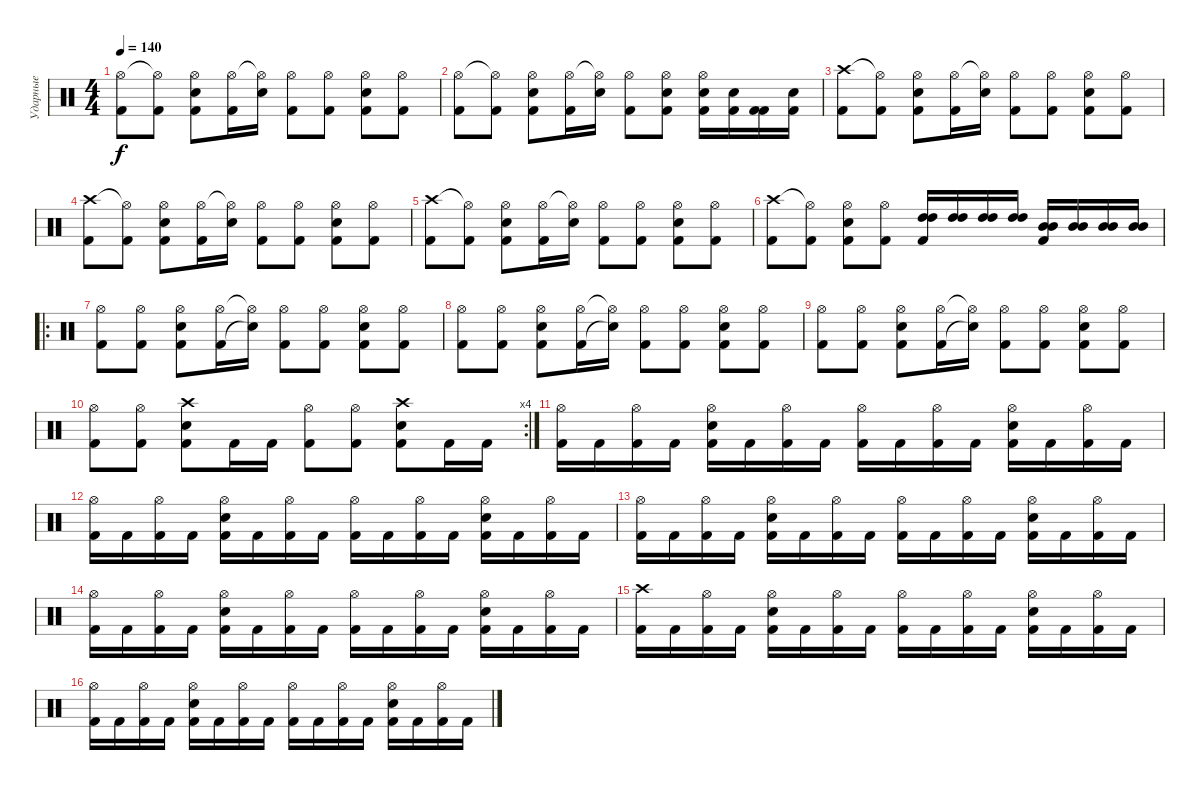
\track ("Ударные" "Ударные") {instrument percussion}
\staff {score}
\articulation defaults
\ts (4 4)
\tempo 140
\clef neutral
\ks c
("Hi-Hat (open)" "Kick (hit) 2").8{dy f} ("Hi-Hat (open)"{t} "Kick (hit) 2").8 ("Hi-Hat (open)" "Electric Snare (hit)" "Kick (hit) 2").8 ("Hi-Hat (open)" "Kick (hit) 2").16 ("Hi-Hat (open)"{t} "Electric Snare (hit)").16 ("Hi-Hat (open)" "Kick (hit) 2").8 ("Hi-Hat (open)" "Kick (hit) 2").8 ("Hi-Hat (open)" "Electric Snare (hit)" "Kick (hit) 2").8 ("Hi-Hat (open)" "Kick (hit) 2").8 |
("Hi-Hat (open)" "Kick (hit) 2").8 ("Hi-Hat (open)"{t} "Kick (hit) 2").8 ("Hi-Hat (open)" "Electric Snare (hit)" "Kick (hit) 2").8 ("Hi-Hat (open)" "Kick (hit) 2").16 ("Hi-Hat (open)"{t} "Electric Snare (hit)").16 ("Hi-Hat (open)" "Kick (hit) 2").8 ("Hi-Hat (open)" "Electric Snare (hit)" "Kick (hit) 2").8 ("Hi-Hat (open)" "Kick (hit) 2" "Electric Snare (hit)").16 ("Electric Snare (hit)" "Kick (hit) 2").16 ("Kick (hit) 2" "Kick (hit) 2").16 ("Electric Snare (hit)" "Kick (hit) 2").16 |
("Crash high (hit)" "Kick (hit) 2").8 ("Hi-Hat (open)"{t} "Kick (hit) 2").8 ("Hi-Hat (open)" "Electric Snare (hit)" "Kick (hit) 2").8 ("Hi-Hat (open)" "Kick (hit) 2").16 ("Hi-Hat (open)"{t} "Electric Snare (hit)").16 ("Hi-Hat (open)" "Kick (hit) 2").8 ("Hi-Hat (open)" "Kick (hit) 2").8 ("Hi-Hat (open)" "Electric Snare (hit)" "Kick (hit) 2").8 ("Hi-Hat (open)" "Kick (hit) 2").8 |
("Crash high (hit)" "Kick (hit) 2").8 ("Hi-Hat (open)"{t} "Kick (hit) 2").8 ("Hi-Hat (open)" "Electric Snare (hit)" "Kick (hit) 2").8 ("Hi-Hat (open)" "Kick (hit) 2").16 ("Hi-Hat (open)"{t} "Electric Snare (hit)").16 ("Hi-Hat (open)" "Kick (hit) 2").8 ("Hi-Hat (open)" "Kick (hit) 2").8 ("Hi-Hat (open)" "Electric Snare (hit)" "Kick (hit) 2").8 ("Hi-Hat (open)" "Kick (hit) 2").8 |
("Crash high (hit)" "Kick (hit) 2").8 ("Hi-Hat (open)"{t} "Kick (hit) 2").8 ("Hi-Hat (open)" "Electric Snare (hit)" "Kick (hit) 2").8 ("Hi-Hat (open)" "Kick (hit) 2").16 ("Hi-Hat (open)"{t} "Electric Snare (hit)").16 ("Hi-Hat (open)" "Kick (hit) 2").8 ("Hi-Hat (open)" "Kick (hit) 2").8 ("Hi-Hat (open)" "Electric Snare (hit)" "Kick (hit) 2").8 ("Hi-Hat (open)" "Kick (hit) 2").8 |
("Crash high (hit)" "Kick (hit) 2").8 ("Hi-Hat (open)"{t} "Kick (hit) 2").8 ("Hi-Hat (open)" "Electric Snare (hit)" "Kick (hit) 2").8 ("Hi-Hat (open)" "Kick (hit) 2").8 ("High Tom (hit)" "High Tom (hit)" "Kick (hit) 2").16 ("High Tom (hit)" "High Tom (hit)").16 ("High Tom (hit)" "High Tom (hit)").16 ("High Tom (hit)" "High Tom (hit)").16 ("Mid Tom (hit)" "Mid Tom (hit)" "Kick (hit) 2").16 ("Mid Tom (hit)" "Mid Tom (hit)").16 ("Mid Tom (hit)" "Mid Tom (hit)").16 ("Mid Tom (hit)" "Mid Tom (hit)").16 |
\ro
("Hi-Hat (open)" "Kick (hit) 2").8 ("Hi-Hat (open)" "Kick (hit) 2").8 ("Hi-Hat (open)" "Electric Snare (hit)" "Kick (hit) 2").8 ("Hi-Hat (open)" "Kick (hit) 2").16 ("Hi-Hat (open)"{t} "Electric Snare (hit)"{t}).16 ("Hi-Hat (open)" "Kick (hit) 2").8 ("Hi-Hat (open)" "Kick (hit) 2").8 ("Hi-Hat (open)" "Electric Snare (hit)" "Kick (hit) 2").8 ("Hi-Hat (open)" "Kick (hit) 2").8 |
("Hi-Hat (open)" "Kick (hit) 2").8 ("Hi-Hat (open)" "Kick (hit) 2").8 ("Hi-Hat (open)" "Electric Snare (hit)" "Kick (hit) 2").8 ("Hi-Hat (open)" "Kick (hit) 2").16 ("Hi-Hat (open)"{t} "Electric Snare (hit)"{t}).16 ("Hi-Hat (open)" "Kick (hit) 2").8 ("Hi-Hat (open)" "Kick (hit) 2").8 ("Hi-Hat (open)" "Electric Snare (hit)" "Kick (hit) 2").8 ("Hi-Hat (open)" "Kick (hit) 2").8 |
("Hi-Hat (open)" "Kick (hit) 2").8 ("Hi-Hat (open)" "Kick (hit) 2").8 ("Hi-Hat (open)" "Electric Snare (hit)" "Kick (hit) 2").8 ("Hi-Hat (open)" "Kick (hit) 2").16 ("Hi-Hat (open)"{t} "Electric Snare (hit)"{t}).16 ("Hi-Hat (open)" "Kick (hit) 2").8 ("Hi-Hat (open)" "Kick (hit) 2").8 ("Hi-Hat (open)" "Electric Snare (hit)" "Kick (hit) 2").8 ("Hi-Hat (open)" "Kick (hit) 2").8 |
\rc 4
("Hi-Hat (open)" "Kick (hit) 2").8 ("Hi-Hat (open)" "Kick (hit) 2").8 ("Crash high (hit)" "Electric Snare (hit)" "Kick (hit) 2").8 "Kick (hit) 2".16 "Kick (hit) 2".16 ("Hi-Hat (open)" "Kick (hit) 2").8 ("Hi-Hat (open)" "Kick (hit) 2").8 ("Crash high (hit)" "Kick (hit) 2" "Electric Snare (hit)").8 "Kick (hit) 2".16 "Kick (hit) 2".16 |
("Hi-Hat (open)" "Kick (hit) 2").16 "Kick (hit) 2".16 ("Hi-Hat (open)" "Kick (hit) 2").16 "Kick (hit) 2".16 ("Hi-Hat (open)" "Electric Snare (hit)" "Kick (hit) 2").16 "Kick (hit) 2".16 ("Hi-Hat (open)" "Kick (hit) 2").16 "Kick (hit) 2".16 ("Hi-Hat (open)" "Kick (hit) 2").16 "Kick (hit) 2".16 ("Hi-Hat (open)" "Kick (hit) 2").16 "Kick (hit) 2".16 ("Hi-Hat (open)" "Electric Snare (hit)" "Kick (hit) 2").16 "Kick (hit) 2".16 ("Hi-Hat (open)" "Kick (hit) 2").16 "Kick (hit) 2".16 |
("Hi-Hat (open)" "Kick (hit) 2").16 "Kick (hit) 2".16 ("Hi-Hat (open)" "Kick (hit) 2").16 "Kick (hit) 2".16 ("Hi-Hat (open)" "Electric Snare (hit)" "Kick (hit) 2").16 "Kick (hit) 2".16 ("Hi-Hat (open)" "Kick (hit) 2").16 "Kick (hit) 2".16 ("Hi-Hat (open)" "Kick (hit) 2").16 "Kick (hit) 2".16 ("Hi-Hat (open)" "Kick (hit) 2").16 "Kick (hit) 2".16 ("Hi-Hat (open)" "Electric Snare (hit)" "Kick (hit) 2").16 "Kick (hit) 2".16 ("Hi-Hat (open)" "Kick (hit) 2").16 "Kick (hit) 2".16 |
("Hi-Hat (open)" "Kick (hit) 2").16 "Kick (hit) 2".16 ("Hi-Hat (open)" "Kick (hit) 2").16 "Kick (hit) 2".16 ("Hi-Hat (open)" "Electric Snare (hit)" "Kick (hit) 2").16 "Kick (hit) 2".16 ("Hi-Hat (open)" "Kick (hit) 2").16 "Kick (hit) 2".16 ("Hi-Hat (open)" "Kick (hit) 2").16 "Kick (hit) 2".16 ("Hi-Hat (open)" "Kick (hit) 2").16 "Kick (hit) 2".16 ("Hi-Hat (open)" "Electric Snare (hit)" "Kick (hit) 2").16 "Kick (hit) 2".16 ("Hi-Hat (open)" "Kick (hit) 2").16 "Kick (hit) 2".16 |
("Hi-Hat (open)" "Kick (hit) 2").16 "Kick (hit) 2".16 ("Hi-Hat (open)" "Kick (hit) 2").16 "Kick (hit) 2".16 ("Hi-Hat (open)" "Electric Snare (hit)" "Kick (hit) 2").16 "Kick (hit) 2".16 ("Hi-Hat (open)" "Kick (hit) 2").16 "Kick (hit) 2".16 ("Hi-Hat (open)" "Kick (hit) 2").16 "Kick (hit) 2".16 ("Hi-Hat (open)" "Kick (hit) 2").16 "Kick (hit) 2".16 ("Hi-Hat (open)" "Electric Snare (hit)" "Kick (hit) 2").16 "Kick (hit) 2".16 ("Hi-Hat (open)" "Kick (hit) 2").16 "Kick (hit) 2".16 |
("Crash high (hit)" "Kick (hit) 2").16 "Kick (hit) 2".16 ("Hi-Hat (open)" "Kick (hit) 2").16 "Kick (hit) 2".16 ("Hi-Hat (open)" "Electric Snare (hit)" "Kick (hit) 2").16 "Kick (hit) 2".16 ("Hi-Hat (open)" "Kick (hit) 2").16 "Kick (hit) 2".16 ("Hi-Hat (open)" "Kick (hit) 2").16 "Kick (hit) 2".16 ("Hi-Hat (open)" "Kick (hit) 2").16 "Kick (hit) 2".16 ("Hi-Hat (open)" "Electric Snare (hit)" "Kick (hit) 2").16 "Kick (hit) 2".16 ("Hi-Hat (open)" "Kick (hit) 2").16 "Kick (hit) 2".16 |
("Hi-Hat (open)" "Kick (hit) 2").16 "Kick (hit) 2".16 ("Hi-Hat (open)" "Kick (hit) 2").16 "Kick (hit) 2".16 ("Hi-Hat (open)" "Electric Snare (hit)" "Kick (hit) 2").16 "Kick (hit) 2".16 ("Hi-Hat (open)" "Kick (hit) 2").16 "Kick (hit) 2".16 ("Hi-Hat (open)" "Kick (hit) 2").16 "Kick (hit) 2".16 ("Hi-Hat (open)" "Kick (hit) 2").16 "Kick (hit) 2".16 ("Hi-Hat (open)" "Electric Snare (hit)" "Kick (hit) 2").16 "Kick (hit) 2".16 ("Hi-Hat (open)" "Kick (hit) 2").16 "Kick (hit) 2".16
